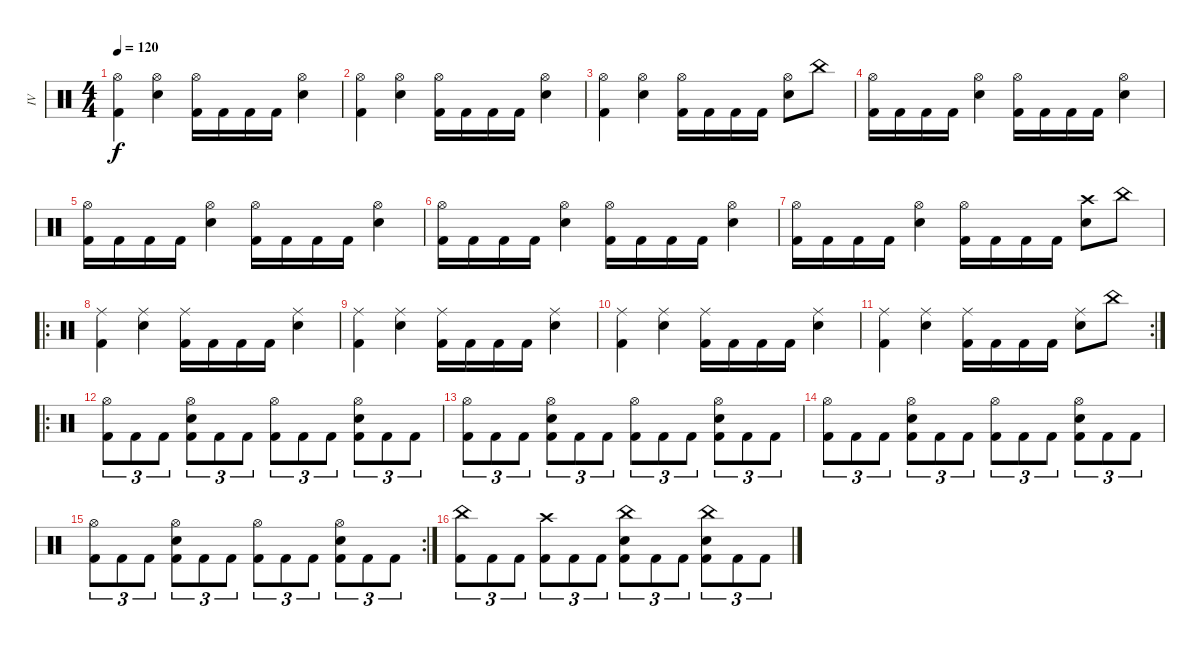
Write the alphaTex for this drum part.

\track ("IV" "IV") {instrument percussion}
\staff {score}
\articulation defaults
\ts (4 4)
\tempo 120
\clef neutral
\ks c
("Hi-Hat (open)" "Kick (hit) 2").4{dy f} ("Hi-Hat (open)" "Snare (hit) 2").4 ("Hi-Hat (open)" "Kick (hit) 2").16 "Kick (hit) 2".16 "Kick (hit) 2".16 "Kick (hit) 2".16 ("Hi-Hat (open)" "Snare (hit) 2").4 |
("Hi-Hat (open)" "Kick (hit) 2").4 ("Hi-Hat (open)" "Snare (hit) 2").4 ("Hi-Hat (open)" "Kick (hit) 2").16 "Kick (hit) 2".16 "Kick (hit) 2".16 "Kick (hit) 2".16 ("Hi-Hat (open)" "Snare (hit) 2").4 |
("Hi-Hat (open)" "Kick (hit) 2").4 ("Hi-Hat (open)" "Snare (hit) 2").4 ("Hi-Hat (open)" "Kick (hit) 2").16 "Kick (hit) 2".16 "Kick (hit) 2".16 "Kick (hit) 2".16 ("Hi-Hat (open)" "Snare (hit) 2").8 "China (hit)".8 |
("Hi-Hat (open)" "Kick (hit) 2").16 "Kick (hit) 2".16 "Kick (hit) 2".16 "Kick (hit) 2".16 ("Hi-Hat (open)" "Snare (hit) 2").4 ("Hi-Hat (open)" "Kick (hit) 2").16 "Kick (hit) 2".16 "Kick (hit) 2".16 "Kick (hit) 2".16 ("Hi-Hat (open)" "Snare (hit) 2").4 |
("Hi-Hat (open)" "Kick (hit) 2").16 "Kick (hit) 2".16 "Kick (hit) 2".16 "Kick (hit) 2".16 ("Hi-Hat (open)" "Snare (hit) 2").4 ("Hi-Hat (open)" "Kick (hit) 2").16 "Kick (hit) 2".16 "Kick (hit) 2".16 "Kick (hit) 2".16 ("Hi-Hat (open)" "Snare (hit) 2").4 |
("Hi-Hat (open)" "Kick (hit) 2").16 "Kick (hit) 2".16 "Kick (hit) 2".16 "Kick (hit) 2".16 ("Hi-Hat (open)" "Snare (hit) 2").4 ("Hi-Hat (open)" "Kick (hit) 2").16 "Kick (hit) 2".16 "Kick (hit) 2".16 "Kick (hit) 2".16 ("Hi-Hat (open)" "Snare (hit) 2").4 |
("Hi-Hat (open)" "Kick (hit) 2").16 "Kick (hit) 2".16 "Kick (hit) 2".16 "Kick (hit) 2".16 ("Hi-Hat (open)" "Snare (hit) 2").4 ("Hi-Hat (open)" "Kick (hit) 2").16 "Kick (hit) 2".16 "Kick (hit) 2".16 "Kick (hit) 2".16 ("Crash high (hit)" "Snare (hit) 2").8 "China (hit)".8 |
\ro
("Ride (middle)" "Kick (hit) 2").4 ("Ride (middle)" "Snare (hit) 2").4 ("Ride (middle)" "Kick (hit) 2").16 "Kick (hit) 2".16 "Kick (hit) 2".16 "Kick (hit) 2".16 ("Ride (middle)" "Snare (hit) 2").4 |
("Ride (middle)" "Kick (hit) 2").4 ("Ride (middle)" "Snare (hit) 2").4 ("Ride (middle)" "Kick (hit) 2").16 "Kick (hit) 2".16 "Kick (hit) 2".16 "Kick (hit) 2".16 ("Ride (middle)" "Snare (hit) 2").4 |
("Ride (middle)" "Kick (hit) 2").4 ("Ride (middle)" "Snare (hit) 2").4 ("Ride (middle)" "Kick (hit) 2").16 "Kick (hit) 2".16 "Kick (hit) 2".16 "Kick (hit) 2".16 ("Ride (middle)" "Snare (hit) 2").4 |
\rc 2
("Ride (middle)" "Kick (hit) 2").4 ("Ride (middle)" "Snare (hit) 2").4 ("Ride (middle)" "Kick (hit) 2").16 "Kick (hit) 2".16 "Kick (hit) 2".16 "Kick (hit) 2".16 ("Ride (middle)" "Snare (hit) 2").8 "China (hit)".8 |
\ro
("Hi-Hat (open)" "Kick (hit) 2").8{tu (3 2)} "Kick (hit) 2".8{tu (3 2)} "Kick (hit) 2".8{tu (3 2)} ("Hi-Hat (open)" "Snare (hit) 2" "Kick (hit) 2").8{tu (3 2)} "Kick (hit) 2".8{tu (3 2)} "Kick (hit) 2".8{tu (3 2)} ("Hi-Hat (open)" "Kick (hit) 2").8{tu (3 2)} "Kick (hit) 2".8{tu (3 2)} "Kick (hit) 2".8{tu (3 2)} ("Hi-Hat (open)" "Snare (hit) 2" "Kick (hit) 2").8{tu (3 2)} "Kick (hit) 2".8{tu (3 2)} "Kick (hit) 2".8{tu (3 2)} |
("Hi-Hat (open)" "Kick (hit) 2").8{tu (3 2)} "Kick (hit) 2".8{tu (3 2)} "Kick (hit) 2".8{tu (3 2)} ("Hi-Hat (open)" "Snare (hit) 2" "Kick (hit) 2").8{tu (3 2)} "Kick (hit) 2".8{tu (3 2)} "Kick (hit) 2".8{tu (3 2)} ("Hi-Hat (open)" "Kick (hit) 2").8{tu (3 2)} "Kick (hit) 2".8{tu (3 2)} "Kick (hit) 2".8{tu (3 2)} ("Hi-Hat (open)" "Snare (hit) 2" "Kick (hit) 2").8{tu (3 2)} "Kick (hit) 2".8{tu (3 2)} "Kick (hit) 2".8{tu (3 2)} |
("Hi-Hat (open)" "Kick (hit) 2").8{tu (3 2)} "Kick (hit) 2".8{tu (3 2)} "Kick (hit) 2".8{tu (3 2)} ("Hi-Hat (open)" "Snare (hit) 2" "Kick (hit) 2").8{tu (3 2)} "Kick (hit) 2".8{tu (3 2)} "Kick (hit) 2".8{tu (3 2)} ("Hi-Hat (open)" "Kick (hit) 2").8{tu (3 2)} "Kick (hit) 2".8{tu (3 2)} "Kick (hit) 2".8{tu (3 2)} ("Hi-Hat (open)" "Snare (hit) 2" "Kick (hit) 2").8{tu (3 2)} "Kick (hit) 2".8{tu (3 2)} "Kick (hit) 2".8{tu (3 2)} |
\rc 2
("Hi-Hat (open)" "Kick (hit) 2").8{tu (3 2)} "Kick (hit) 2".8{tu (3 2)} "Kick (hit) 2".8{tu (3 2)} ("Hi-Hat (open)" "Snare (hit) 2" "Kick (hit) 2").8{tu (3 2)} "Kick (hit) 2".8{tu (3 2)} "Kick (hit) 2".8{tu (3 2)} ("Hi-Hat (open)" "Kick (hit) 2").8{tu (3 2)} "Kick (hit) 2".8{tu (3 2)} "Kick (hit) 2".8{tu (3 2)} ("Hi-Hat (open)" "Snare (hit) 2" "Kick (hit) 2").8{tu (3 2)} "Kick (hit) 2".8{tu (3 2)} "Kick (hit) 2".8{tu (3 2)} |
("China (hit)" "Kick (hit) 2").8{tu (3 2)} "Kick (hit) 2".8{tu (3 2)} "Kick (hit) 2".8{tu (3 2)} ("Crash high (hit)" "Kick (hit) 2").8{tu (3 2)} "Kick (hit) 2".8{tu (3 2)} "Kick (hit) 2".8{tu (3 2)} ("China (hit)" "Snare (hit) 2" "Kick (hit) 2").8{tu (3 2)} "Kick (hit) 2".8{tu (3 2)} "Kick (hit) 2".8{tu (3 2)} ("China (hit)" "Snare (hit) 2" "Kick (hit) 2").8{tu (3 2)} "Kick (hit) 2".8{tu (3 2)} "Kick (hit) 2".8{tu (3 2)}
